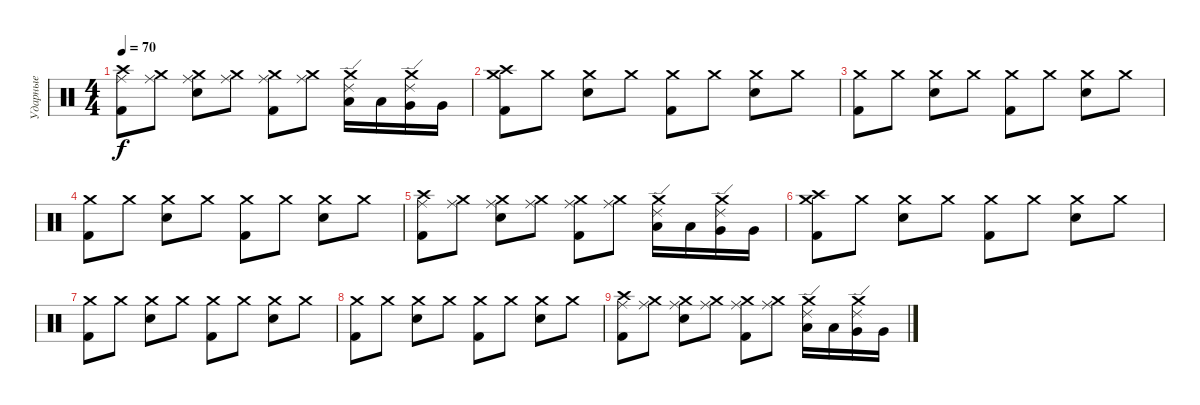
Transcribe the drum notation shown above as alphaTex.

\track ("Ударные" "Ударные") {instrument percussion}
\staff {score}
\articulation defaults
\ts (4 4)
\tempo 70
\clef neutral
\ks c
("Ride (middle)" "Kick (hit) 2" "Crash high (hit)").8{dy f} ("Crash medium (hit)" "Ride (middle)").8 ("Crash medium (hit)" "Electric Snare (hit)" "Ride (middle)").8 ("Crash medium (hit)" "Ride (middle)").8 ("Crash medium (hit)" "Kick (hit) 2" "Ride (middle)").8 ("Crash medium (hit)" "Ride (middle)").8 ("Low Tom (hit)" "Crash medium (hit)" "Ride (edge) 2").16 "Low Tom (hit)".16 ("Very Low Tom (hit)" "Ride (edge) 2" "Crash medium (hit)").16 "Very Low Tom (hit)".16 |
("Crash medium (hit)" "Kick (hit) 2" "Crash high (hit)").8 "Crash medium (hit)".8 ("Crash medium (hit)" "Electric Snare (hit)").8 "Crash medium (hit)".8 ("Crash medium (hit)" "Kick (hit) 2").8 "Crash medium (hit)".8 ("Crash medium (hit)" "Electric Snare (hit)").8 "Crash medium (hit)".8 |
("Crash medium (hit)" "Kick (hit) 2").8 "Crash medium (hit)".8 ("Crash medium (hit)" "Electric Snare (hit)").8 "Crash medium (hit)".8 ("Crash medium (hit)" "Kick (hit) 2").8 "Crash medium (hit)".8 ("Crash medium (hit)" "Electric Snare (hit)").8 "Crash medium (hit)".8 |
("Crash medium (hit)" "Kick (hit) 2").8 "Crash medium (hit)".8 ("Crash medium (hit)" "Electric Snare (hit)").8 "Crash medium (hit)".8 ("Crash medium (hit)" "Kick (hit) 2").8 "Crash medium (hit)".8 ("Crash medium (hit)" "Electric Snare (hit)").8 "Crash medium (hit)".8 |
("Ride (middle)" "Kick (hit) 2" "Crash high (hit)").8 ("Crash medium (hit)" "Ride (middle)").8 ("Crash medium (hit)" "Electric Snare (hit)" "Ride (middle)").8 ("Crash medium (hit)" "Ride (middle)").8 ("Crash medium (hit)" "Kick (hit) 2" "Ride (middle)").8 ("Crash medium (hit)" "Ride (middle)").8 ("Low Tom (hit)" "Crash medium (hit)" "Ride (edge) 2").16 "Low Tom (hit)".16 ("Very Low Tom (hit)" "Ride (edge) 2" "Crash medium (hit)").16 "Very Low Tom (hit)".16 |
("Crash medium (hit)" "Kick (hit) 2" "Crash high (hit)").8 "Crash medium (hit)".8 ("Crash medium (hit)" "Electric Snare (hit)").8 "Crash medium (hit)".8 ("Crash medium (hit)" "Kick (hit) 2").8 "Crash medium (hit)".8 ("Crash medium (hit)" "Electric Snare (hit)").8 "Crash medium (hit)".8 |
("Crash medium (hit)" "Kick (hit) 2").8 "Crash medium (hit)".8 ("Crash medium (hit)" "Electric Snare (hit)").8 "Crash medium (hit)".8 ("Crash medium (hit)" "Kick (hit) 2").8 "Crash medium (hit)".8 ("Crash medium (hit)" "Electric Snare (hit)").8 "Crash medium (hit)".8 |
("Crash medium (hit)" "Kick (hit) 2").8 "Crash medium (hit)".8 ("Crash medium (hit)" "Electric Snare (hit)").8 "Crash medium (hit)".8 ("Crash medium (hit)" "Kick (hit) 2").8 "Crash medium (hit)".8 ("Crash medium (hit)" "Electric Snare (hit)").8 "Crash medium (hit)".8 |
("Ride (middle)" "Kick (hit) 2" "Crash high (hit)").8 ("Crash medium (hit)" "Ride (middle)").8 ("Crash medium (hit)" "Electric Snare (hit)" "Ride (middle)").8 ("Crash medium (hit)" "Ride (middle)").8 ("Crash medium (hit)" "Kick (hit) 2" "Ride (middle)").8 ("Crash medium (hit)" "Ride (middle)").8 ("Low Tom (hit)" "Crash medium (hit)" "Ride (edge) 2").16 "Low Tom (hit)".16 ("Very Low Tom (hit)" "Ride (edge) 2" "Crash medium (hit)").16 "Very Low Tom (hit)".16
